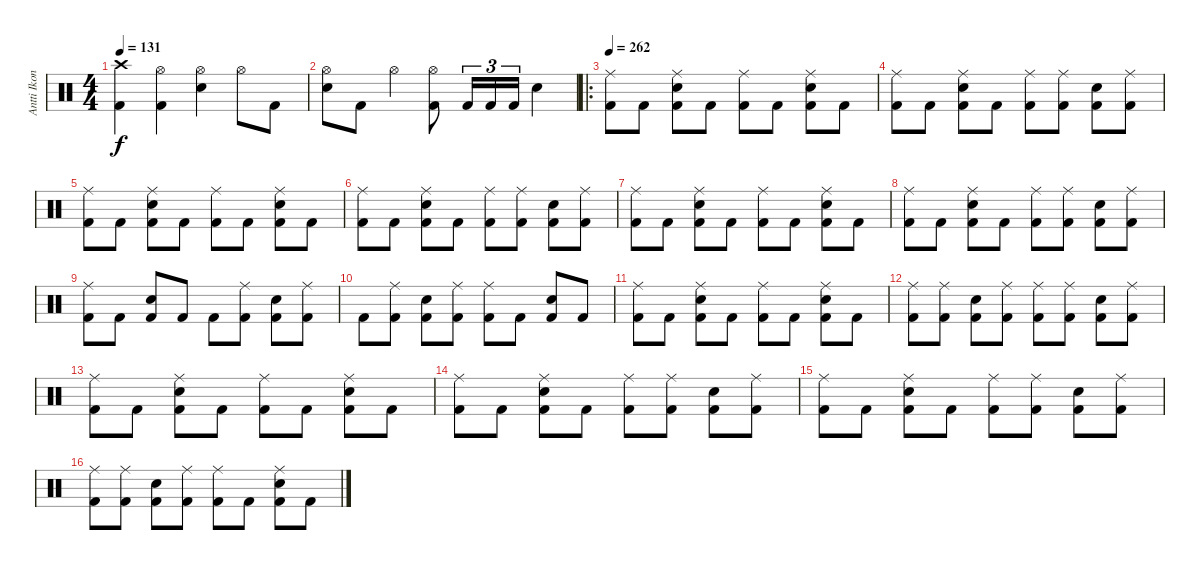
\track ("Antti Ikonen" "Antti Ikon") {instrument percussion}
\staff {score}
\articulation defaults
\ts (4 4)
\tempo 131
\clef neutral
\ks c
("Crash high (hit)" "Kick (hit) 2").4{dy f} ("Hi-Hat (open)" "Kick (hit) 2").4 ("Hi-Hat (open)" "Electric Snare (hit)").4 "Hi-Hat (open)".8 "Kick (hit) 2".8 |
("Hi-Hat (open)" "Electric Snare (hit)").8 "Kick (hit) 2".8 "Hi-Hat (open)".4 ("Hi-Hat (open)" "Kick (hit) 2").8 "Kick (hit) 2".16{tu (3 2)} "Kick (hit) 2".16{tu (3 2)} "Kick (hit) 2".16{tu (3 2)} "Electric Snare (hit)".4 |
\ro
\tempo 262
("Ride (middle)" "Kick (hit) 2").8 "Kick (hit) 2".8 ("Ride (middle)" "Electric Snare (hit)" "Kick (hit) 2").8 "Kick (hit) 2".8 ("Ride (middle)" "Kick (hit) 2").8 "Kick (hit) 2".8 ("Ride (middle)" "Electric Snare (hit)" "Kick (hit) 2").8 "Kick (hit) 2".8 |
("Ride (middle)" "Kick (hit) 2").8 "Kick (hit) 2".8 ("Ride (middle)" "Electric Snare (hit)" "Kick (hit) 2").8 "Kick (hit) 2".8 ("Ride (middle)" "Kick (hit) 2").8 ("Ride (middle)" "Kick (hit) 2").8 ("Electric Snare (hit)" "Kick (hit) 2").8 ("Ride (middle)" "Kick (hit) 2").8 |
("Ride (middle)" "Kick (hit) 2").8 "Kick (hit) 2".8 ("Ride (middle)" "Electric Snare (hit)" "Kick (hit) 2").8 "Kick (hit) 2".8 ("Ride (middle)" "Kick (hit) 2").8 "Kick (hit) 2".8 ("Ride (middle)" "Electric Snare (hit)" "Kick (hit) 2").8 "Kick (hit) 2".8 |
("Ride (middle)" "Kick (hit) 2").8 "Kick (hit) 2".8 ("Ride (middle)" "Electric Snare (hit)" "Kick (hit) 2").8 "Kick (hit) 2".8 ("Ride (middle)" "Kick (hit) 2").8 ("Ride (middle)" "Kick (hit) 2").8 ("Electric Snare (hit)" "Kick (hit) 2").8 ("Ride (middle)" "Kick (hit) 2").8 |
("Ride (middle)" "Kick (hit) 2").8 "Kick (hit) 2".8 ("Ride (middle)" "Electric Snare (hit)" "Kick (hit) 2").8 "Kick (hit) 2".8 ("Ride (middle)" "Kick (hit) 2").8 "Kick (hit) 2".8 ("Ride (middle)" "Electric Snare (hit)" "Kick (hit) 2").8 "Kick (hit) 2".8 |
("Ride (middle)" "Kick (hit) 2").8 "Kick (hit) 2".8 ("Ride (middle)" "Electric Snare (hit)" "Kick (hit) 2").8 "Kick (hit) 2".8 ("Ride (middle)" "Kick (hit) 2").8 ("Ride (middle)" "Kick (hit) 2").8 ("Electric Snare (hit)" "Kick (hit) 2").8 ("Ride (middle)" "Kick (hit) 2").8 |
("Ride (middle)" "Kick (hit) 2").8 "Kick (hit) 2".8 ("Electric Snare (hit)" "Kick (hit) 2").8 "Kick (hit) 2".8 "Kick (hit) 2".8 ("Ride (middle)" "Kick (hit) 2").8 ("Electric Snare (hit)" "Kick (hit) 2").8 ("Ride (middle)" "Kick (hit) 2").8 |
"Kick (hit) 2".8 ("Ride (middle)" "Kick (hit) 2").8 ("Electric Snare (hit)" "Kick (hit) 2").8 ("Ride (middle)" "Kick (hit) 2").8 ("Ride (middle)" "Kick (hit) 2").8 "Kick (hit) 2".8 ("Electric Snare (hit)" "Kick (hit) 2").8 "Kick (hit) 2".8 |
("Ride (middle)" "Kick (hit) 2").8 "Kick (hit) 2".8 ("Ride (middle)" "Electric Snare (hit)" "Kick (hit) 2").8 "Kick (hit) 2".8 ("Ride (middle)" "Kick (hit) 2").8 "Kick (hit) 2".8 ("Ride (middle)" "Electric Snare (hit)" "Kick (hit) 2").8 "Kick (hit) 2".8 |
("Ride (middle)" "Kick (hit) 2").8 ("Ride (middle)" "Kick (hit) 2").8 ("Electric Snare (hit)" "Kick (hit) 2").8 ("Ride (middle)" "Kick (hit) 2").8 ("Ride (middle)" "Kick (hit) 2").8 ("Ride (middle)" "Kick (hit) 2").8 ("Electric Snare (hit)" "Kick (hit) 2").8 ("Ride (middle)" "Kick (hit) 2").8 |
("Ride (middle)" "Kick (hit) 2").8 "Kick (hit) 2".8 ("Ride (middle)" "Electric Snare (hit)" "Kick (hit) 2").8 "Kick (hit) 2".8 ("Ride (middle)" "Kick (hit) 2").8 "Kick (hit) 2".8 ("Ride (middle)" "Electric Snare (hit)" "Kick (hit) 2").8 "Kick (hit) 2".8 |
("Ride (middle)" "Kick (hit) 2").8 "Kick (hit) 2".8 ("Ride (middle)" "Electric Snare (hit)" "Kick (hit) 2").8 "Kick (hit) 2".8 ("Ride (middle)" "Kick (hit) 2").8 ("Ride (middle)" "Kick (hit) 2").8 ("Electric Snare (hit)" "Kick (hit) 2").8 ("Ride (middle)" "Kick (hit) 2").8 |
("Ride (middle)" "Kick (hit) 2").8 "Kick (hit) 2".8 ("Ride (middle)" "Electric Snare (hit)" "Kick (hit) 2").8 "Kick (hit) 2".8 ("Ride (middle)" "Kick (hit) 2").8 ("Ride (middle)" "Kick (hit) 2").8 ("Electric Snare (hit)" "Kick (hit) 2").8 ("Ride (middle)" "Kick (hit) 2").8 |
("Ride (middle)" "Kick (hit) 2").8 ("Ride (middle)" "Kick (hit) 2").8 ("Electric Snare (hit)" "Kick (hit) 2").8 ("Ride (middle)" "Kick (hit) 2").8 ("Ride (middle)" "Kick (hit) 2").8 "Kick (hit) 2".8 ("Ride (middle)" "Electric Snare (hit)" "Kick (hit) 2").8 "Kick (hit) 2".8
